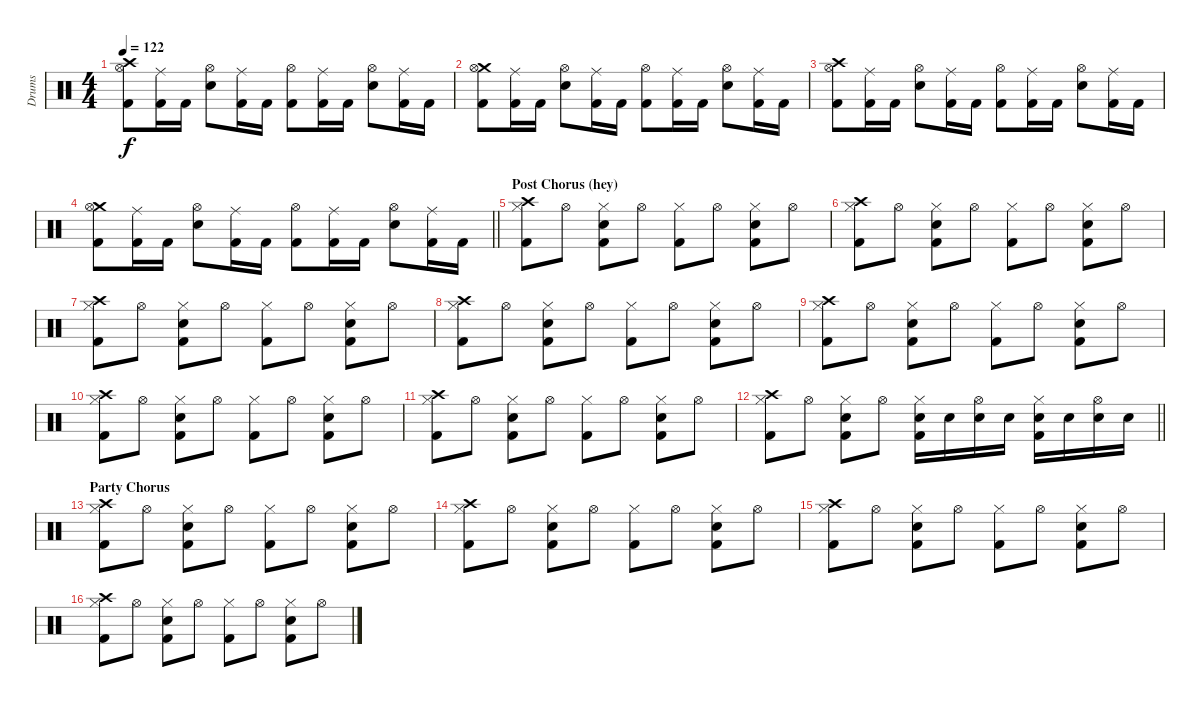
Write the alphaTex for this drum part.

\track ("Drums" "Drums") {instrument percussion}
\staff {score}
\articulation defaults
\ts (4 4)
\tempo 122
\clef neutral
\ks c
("Crash high (hit)" "Hi-Hat (open)" "Kick (hit) 2").8{dy f} ("Ride (middle)" "Kick (hit) 2").16 "Kick (hit) 2".16 ("Hi-Hat (open)" "Snare (hit) 2").8 ("Ride (middle)" "Kick (hit) 2").16 "Kick (hit) 2".16 ("Hi-Hat (open)" "Kick (hit) 2").8 ("Ride (middle)" "Kick (hit) 2").16 "Kick (hit) 2".16 ("Hi-Hat (open)" "Snare (hit) 2").8 ("Ride (middle)" "Kick (hit) 2").16 "Kick (hit) 2".16 |
("Crash medium (hit)" "Hi-Hat (open)" "Kick (hit) 2").8 ("Ride (middle)" "Kick (hit) 2").16 "Kick (hit) 2".16 ("Hi-Hat (open)" "Snare (hit) 2").8 ("Ride (middle)" "Kick (hit) 2").16 "Kick (hit) 2".16 ("Hi-Hat (open)" "Kick (hit) 2").8 ("Ride (middle)" "Kick (hit) 2").16 "Kick (hit) 2".16 ("Hi-Hat (open)" "Snare (hit) 2").8 ("Ride (middle)" "Kick (hit) 2").16 "Kick (hit) 2".16 |
("Crash high (hit)" "Hi-Hat (open)" "Kick (hit) 2").8 ("Ride (middle)" "Kick (hit) 2").16 "Kick (hit) 2".16 ("Hi-Hat (open)" "Snare (hit) 2").8 ("Ride (middle)" "Kick (hit) 2").16 "Kick (hit) 2".16 ("Hi-Hat (open)" "Kick (hit) 2").8 ("Ride (middle)" "Kick (hit) 2").16 "Kick (hit) 2".16 ("Hi-Hat (open)" "Snare (hit) 2").8 ("Ride (middle)" "Kick (hit) 2").16 "Kick (hit) 2".16 |
\barLineRight lightlight
("Crash medium (hit)" "Hi-Hat (open)" "Kick (hit) 2").8 ("Ride (middle)" "Kick (hit) 2").16 "Kick (hit) 2".16 ("Hi-Hat (open)" "Snare (hit) 2").8 ("Ride (middle)" "Kick (hit) 2").16 "Kick (hit) 2".16 ("Hi-Hat (open)" "Kick (hit) 2").8 ("Ride (middle)" "Kick (hit) 2").16 "Kick (hit) 2".16 ("Hi-Hat (open)" "Snare (hit) 2").8 ("Ride (middle)" "Kick (hit) 2").16 "Kick (hit) 2".16 |
\section ("" "Post Chorus (hey)")
("Crash high (hit)" "Hi-Hat (closed)" "Kick (hit) 2").8 "Hi-Hat (open)".8 ("Hi-Hat (closed)" "Snare (hit) 2" "Kick (hit) 2").8 "Hi-Hat (open)".8 ("Hi-Hat (closed)" "Kick (hit) 2").8 "Hi-Hat (open)".8 ("Hi-Hat (closed)" "Snare (hit) 2" "Kick (hit) 2").8 "Hi-Hat (open)".8 |
("Crash high (hit)" "Hi-Hat (closed)" "Kick (hit) 2").8 "Hi-Hat (open)".8 ("Hi-Hat (closed)" "Snare (hit) 2" "Kick (hit) 2").8 "Hi-Hat (open)".8 ("Hi-Hat (closed)" "Kick (hit) 2").8 "Hi-Hat (open)".8 ("Hi-Hat (closed)" "Snare (hit) 2" "Kick (hit) 2").8 "Hi-Hat (open)".8 |
("Crash high (hit)" "Hi-Hat (closed)" "Kick (hit) 2").8 "Hi-Hat (open)".8 ("Hi-Hat (closed)" "Snare (hit) 2" "Kick (hit) 2").8 "Hi-Hat (open)".8 ("Hi-Hat (closed)" "Kick (hit) 2").8 "Hi-Hat (open)".8 ("Hi-Hat (closed)" "Snare (hit) 2" "Kick (hit) 2").8 "Hi-Hat (open)".8 |
("Crash high (hit)" "Hi-Hat (closed)" "Kick (hit) 2").8 "Hi-Hat (open)".8 ("Hi-Hat (closed)" "Snare (hit) 2" "Kick (hit) 2").8 "Hi-Hat (open)".8 ("Hi-Hat (closed)" "Kick (hit) 2").8 "Hi-Hat (open)".8 ("Hi-Hat (closed)" "Snare (hit) 2" "Kick (hit) 2").8 "Hi-Hat (open)".8 |
("Crash high (hit)" "Hi-Hat (closed)" "Kick (hit) 2").8 "Hi-Hat (open)".8 ("Hi-Hat (closed)" "Snare (hit) 2" "Kick (hit) 2").8 "Hi-Hat (open)".8 ("Hi-Hat (closed)" "Kick (hit) 2").8 "Hi-Hat (open)".8 ("Hi-Hat (closed)" "Snare (hit) 2" "Kick (hit) 2").8 "Hi-Hat (open)".8 |
("Crash high (hit)" "Hi-Hat (closed)" "Kick (hit) 2").8 "Hi-Hat (open)".8 ("Hi-Hat (closed)" "Snare (hit) 2" "Kick (hit) 2").8 "Hi-Hat (open)".8 ("Hi-Hat (closed)" "Kick (hit) 2").8 "Hi-Hat (open)".8 ("Hi-Hat (closed)" "Snare (hit) 2" "Kick (hit) 2").8 "Hi-Hat (open)".8 |
("Crash high (hit)" "Hi-Hat (closed)" "Kick (hit) 2").8 "Hi-Hat (open)".8 ("Hi-Hat (closed)" "Snare (hit) 2" "Kick (hit) 2").8 "Hi-Hat (open)".8 ("Hi-Hat (closed)" "Kick (hit) 2").8 "Hi-Hat (open)".8 ("Hi-Hat (closed)" "Snare (hit) 2" "Kick (hit) 2").8 "Hi-Hat (open)".8 |
\barLineRight lightlight
("Crash high (hit)" "Hi-Hat (closed)" "Kick (hit) 2").8 "Hi-Hat (open)".8 ("Hi-Hat (closed)" "Snare (hit) 2" "Kick (hit) 2").8 "Hi-Hat (open)".8 ("Hi-Hat (closed)" "Snare (hit) 2" "Kick (hit) 2").16 "Snare (hit) 2".16 ("Hi-Hat (open)" "Snare (hit) 2").16 "Snare (hit) 2".16 ("Hi-Hat (closed)" "Snare (hit) 2" "Kick (hit) 2").16 "Snare (hit) 2".16 ("Hi-Hat (open)" "Snare (hit) 2").16 "Snare (hit) 2".16 |
\section ("" "Party Chorus")
("Crash high (hit)" "Hi-Hat (closed)" "Kick (hit) 2").8 "Hi-Hat (open)".8 ("Hi-Hat (closed)" "Snare (hit) 2" "Kick (hit) 2").8 "Hi-Hat (open)".8 ("Hi-Hat (closed)" "Kick (hit) 2").8 "Hi-Hat (open)".8 ("Hi-Hat (closed)" "Snare (hit) 2" "Kick (hit) 2").8 "Hi-Hat (open)".8 |
("Crash high (hit)" "Hi-Hat (closed)" "Kick (hit) 2").8 "Hi-Hat (open)".8 ("Hi-Hat (closed)" "Snare (hit) 2" "Kick (hit) 2").8 "Hi-Hat (open)".8 ("Hi-Hat (closed)" "Kick (hit) 2").8 "Hi-Hat (open)".8 ("Hi-Hat (closed)" "Snare (hit) 2" "Kick (hit) 2").8 "Hi-Hat (open)".8 |
("Crash high (hit)" "Hi-Hat (closed)" "Kick (hit) 2").8 "Hi-Hat (open)".8 ("Hi-Hat (closed)" "Snare (hit) 2" "Kick (hit) 2").8 "Hi-Hat (open)".8 ("Hi-Hat (closed)" "Kick (hit) 2").8 "Hi-Hat (open)".8 ("Hi-Hat (closed)" "Snare (hit) 2" "Kick (hit) 2").8 "Hi-Hat (open)".8 |
("Crash high (hit)" "Hi-Hat (closed)" "Kick (hit) 2").8 "Hi-Hat (open)".8 ("Hi-Hat (closed)" "Snare (hit) 2" "Kick (hit) 2").8 "Hi-Hat (open)".8 ("Hi-Hat (closed)" "Kick (hit) 2").8 "Hi-Hat (open)".8 ("Hi-Hat (closed)" "Snare (hit) 2" "Kick (hit) 2").8 "Hi-Hat (open)".8
